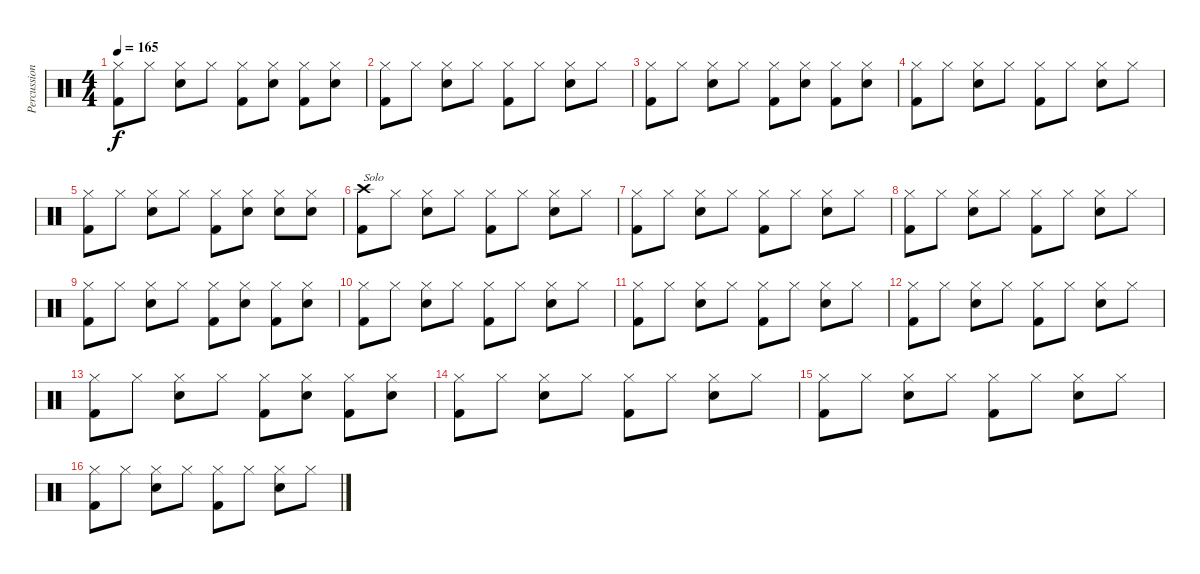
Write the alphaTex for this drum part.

\track ("Percussion" "Percussion") {instrument percussion}
\staff {score}
\articulation defaults
\ts (4 4)
\tempo 165
\clef neutral
\ks c
("Hi-Hat (closed)" "Kick (hit) 2").8{dy f} "Hi-Hat (closed)".8 ("Hi-Hat (closed)" "Snare (hit) 2").8 "Hi-Hat (closed)".8 ("Hi-Hat (closed)" "Kick (hit) 2").8 ("Hi-Hat (closed)" "Snare (hit) 2").8 ("Hi-Hat (closed)" "Kick (hit) 2").8 ("Hi-Hat (closed)" "Snare (hit) 2").8 |
("Hi-Hat (closed)" "Kick (hit) 2").8 "Hi-Hat (closed)".8 ("Hi-Hat (closed)" "Snare (hit) 2").8 "Hi-Hat (closed)".8 ("Hi-Hat (closed)" "Kick (hit) 2").8 "Hi-Hat (closed)".8 ("Hi-Hat (closed)" "Snare (hit) 2").8 "Hi-Hat (closed)".8 |
("Hi-Hat (closed)" "Kick (hit) 2").8 "Hi-Hat (closed)".8 ("Hi-Hat (closed)" "Snare (hit) 2").8 "Hi-Hat (closed)".8 ("Hi-Hat (closed)" "Kick (hit) 2").8 ("Hi-Hat (closed)" "Snare (hit) 2").8 ("Hi-Hat (closed)" "Kick (hit) 2").8 ("Hi-Hat (closed)" "Snare (hit) 2").8 |
("Hi-Hat (closed)" "Kick (hit) 2").8 "Hi-Hat (closed)".8 ("Hi-Hat (closed)" "Snare (hit) 2").8 "Hi-Hat (closed)".8 ("Hi-Hat (closed)" "Kick (hit) 2").8 "Hi-Hat (closed)".8 ("Hi-Hat (closed)" "Snare (hit) 2").8 "Hi-Hat (closed)".8 |
("Hi-Hat (closed)" "Kick (hit) 2").8 "Hi-Hat (closed)".8 ("Hi-Hat (closed)" "Snare (hit) 2").8 "Hi-Hat (closed)".8 ("Hi-Hat (closed)" "Kick (hit) 2").8 ("Hi-Hat (closed)" "Snare (hit) 2").8 ("Hi-Hat (closed)" "Snare (hit) 2").8 ("Hi-Hat (closed)" "Snare (hit) 2").8 |
("Crash high (hit)" "Kick (hit) 2").8{txt "Solo"} "Hi-Hat (closed)".8 ("Hi-Hat (closed)" "Snare (hit) 2").8 "Hi-Hat (closed)".8 ("Hi-Hat (closed)" "Kick (hit) 2").8 "Hi-Hat (closed)".8 ("Hi-Hat (closed)" "Snare (hit) 2").8 "Hi-Hat (closed)".8 |
("Hi-Hat (closed)" "Kick (hit) 2").8 "Hi-Hat (closed)".8 ("Hi-Hat (closed)" "Snare (hit) 2").8 "Hi-Hat (closed)".8 ("Hi-Hat (closed)" "Kick (hit) 2").8 "Hi-Hat (closed)".8 ("Hi-Hat (closed)" "Snare (hit) 2").8 "Hi-Hat (closed)".8 |
("Hi-Hat (closed)" "Kick (hit) 2").8 "Hi-Hat (closed)".8 ("Hi-Hat (closed)" "Snare (hit) 2").8 "Hi-Hat (closed)".8 ("Hi-Hat (closed)" "Kick (hit) 2").8 "Hi-Hat (closed)".8 ("Hi-Hat (closed)" "Snare (hit) 2").8 "Hi-Hat (closed)".8 |
("Hi-Hat (closed)" "Kick (hit) 2").8 "Hi-Hat (closed)".8 ("Hi-Hat (closed)" "Snare (hit) 2").8 "Hi-Hat (closed)".8 ("Hi-Hat (closed)" "Kick (hit) 2").8 ("Hi-Hat (closed)" "Snare (hit) 2").8 ("Hi-Hat (closed)" "Kick (hit) 2").8 ("Hi-Hat (closed)" "Snare (hit) 2").8 |
("Hi-Hat (closed)" "Kick (hit) 2").8 "Hi-Hat (closed)".8 ("Hi-Hat (closed)" "Snare (hit) 2").8 "Hi-Hat (closed)".8 ("Hi-Hat (closed)" "Kick (hit) 2").8 "Hi-Hat (closed)".8 ("Hi-Hat (closed)" "Snare (hit) 2").8 "Hi-Hat (closed)".8 |
("Hi-Hat (closed)" "Kick (hit) 2").8 "Hi-Hat (closed)".8 ("Hi-Hat (closed)" "Snare (hit) 2").8 "Hi-Hat (closed)".8 ("Hi-Hat (closed)" "Kick (hit) 2").8 "Hi-Hat (closed)".8 ("Hi-Hat (closed)" "Snare (hit) 2").8 "Hi-Hat (closed)".8 |
("Hi-Hat (closed)" "Kick (hit) 2").8 "Hi-Hat (closed)".8 ("Hi-Hat (closed)" "Snare (hit) 2").8 "Hi-Hat (closed)".8 ("Hi-Hat (closed)" "Kick (hit) 2").8 "Hi-Hat (closed)".8 ("Hi-Hat (closed)" "Snare (hit) 2").8 "Hi-Hat (closed)".8 |
("Hi-Hat (closed)" "Kick (hit) 2").8 "Hi-Hat (closed)".8 ("Hi-Hat (closed)" "Snare (hit) 2").8 "Hi-Hat (closed)".8 ("Hi-Hat (closed)" "Kick (hit) 2").8 ("Hi-Hat (closed)" "Snare (hit) 2").8 ("Hi-Hat (closed)" "Kick (hit) 2").8 ("Hi-Hat (closed)" "Snare (hit) 2").8 |
("Hi-Hat (closed)" "Kick (hit) 2").8 "Hi-Hat (closed)".8 ("Hi-Hat (closed)" "Snare (hit) 2").8 "Hi-Hat (closed)".8 ("Hi-Hat (closed)" "Kick (hit) 2").8 "Hi-Hat (closed)".8 ("Hi-Hat (closed)" "Snare (hit) 2").8 "Hi-Hat (closed)".8 |
("Hi-Hat (closed)" "Kick (hit) 2").8 "Hi-Hat (closed)".8 ("Hi-Hat (closed)" "Snare (hit) 2").8 "Hi-Hat (closed)".8 ("Hi-Hat (closed)" "Kick (hit) 2").8 "Hi-Hat (closed)".8 ("Hi-Hat (closed)" "Snare (hit) 2").8 "Hi-Hat (closed)".8 |
("Hi-Hat (closed)" "Kick (hit) 2").8 "Hi-Hat (closed)".8 ("Hi-Hat (closed)" "Snare (hit) 2").8 "Hi-Hat (closed)".8 ("Hi-Hat (closed)" "Kick (hit) 2").8 "Hi-Hat (closed)".8 ("Hi-Hat (closed)" "Snare (hit) 2").8 "Hi-Hat (closed)".8
